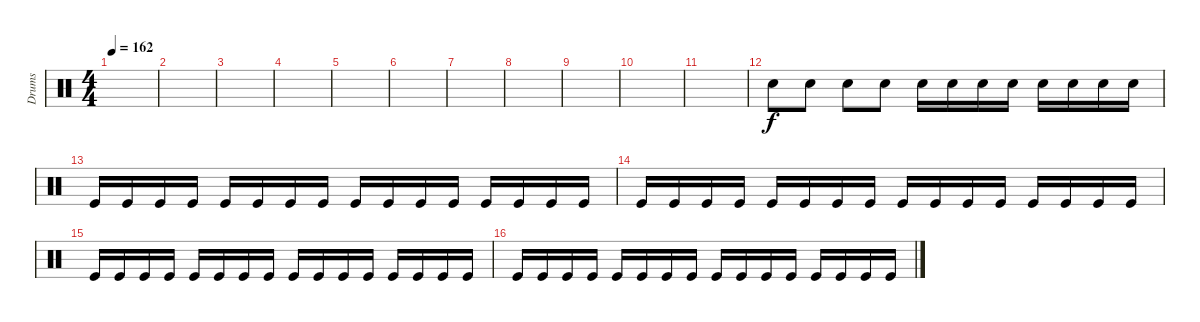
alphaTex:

\track ("Drums" "Drums") {instrument percussion}
\staff {score}
\articulation defaults
\ts (4 4)
\tempo 162
\clef neutral
\ks c
|
|
|
|
|
|
|
|
|
|
|
"Electric Snare (hit)".8 "Electric Snare (hit)".8 "Electric Snare (hit)".8 "Electric Snare (hit)".8 "Electric Snare (hit)".16 "Snare (hit) 2".16 "Snare (hit) 2".16 "Snare (hit) 2".16 "Snare (hit) 2".16 "Snare (hit) 2".16 "Snare (hit) 2".16 "Snare (hit) 2".16 |
"Kick (hit)".16 "Kick (hit)".16 "Kick (hit)".16 "Kick (hit)".16 "Kick (hit)".16 "Kick (hit)".16 "Kick (hit)".16 "Kick (hit)".16 "Kick (hit)".16 "Kick (hit)".16 "Kick (hit)".16 "Kick (hit)".16 "Kick (hit)".16 "Kick (hit)".16 "Kick (hit)".16 "Kick (hit)".16 |
"Kick (hit)".16 "Kick (hit)".16 "Kick (hit)".16 "Kick (hit)".16 "Kick (hit)".16 "Kick (hit)".16 "Kick (hit)".16 "Kick (hit)".16 "Kick (hit)".16 "Kick (hit)".16 "Kick (hit)".16 "Kick (hit)".16 "Kick (hit)".16 "Kick (hit)".16 "Kick (hit)".16 "Kick (hit)".16 |
"Kick (hit)".16 "Kick (hit)".16 "Kick (hit)".16 "Kick (hit)".16 "Kick (hit)".16 "Kick (hit)".16 "Kick (hit)".16 "Kick (hit)".16 "Kick (hit)".16 "Kick (hit)".16 "Kick (hit)".16 "Kick (hit)".16 "Kick (hit)".16 "Kick (hit)".16 "Kick (hit)".16 "Kick (hit)".16 |
"Kick (hit)".16 "Kick (hit)".16 "Kick (hit)".16 "Kick (hit)".16 "Kick (hit)".16 "Kick (hit)".16 "Kick (hit)".16 "Kick (hit)".16 "Kick (hit)".16 "Kick (hit)".16 "Kick (hit)".16 "Kick (hit)".16 "Kick (hit)".16 "Kick (hit)".16 "Kick (hit)".16 "Kick (hit)".16
